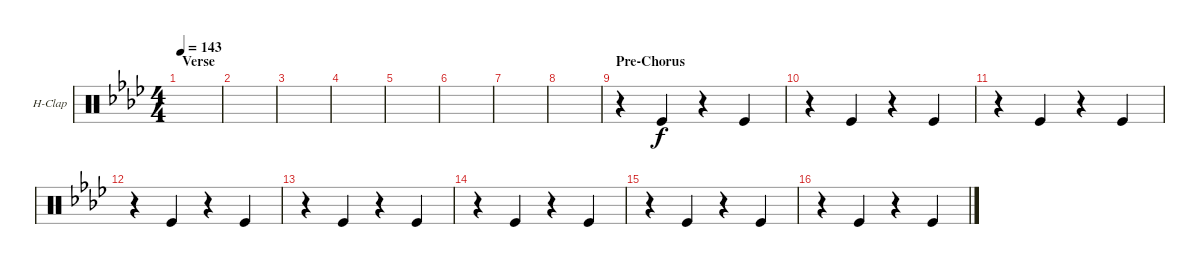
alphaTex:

\defaultSystemsLayout 4
\bracketExtendMode groupsimilarinstruments
\firstSystemTrackNameOrientation horizontal
\otherSystemsTrackNameOrientation horizontal
\track ("Hand Clap" "H-Clap") {instrument percussion}
\staff {score}
\articulation defaults
\ts (4 4)
\section ("" "Verse")
\tempo 143
\clef neutral
\ks fminor
|
|
|
|
|
|
|
|
\section ("" "Pre-Chorus")
r.4 "Kick (hit)".4 r.4 "Kick (hit)".4 |
r.4 "Kick (hit)".4 r.4 "Kick (hit)".4 |
r.4 "Kick (hit)".4 r.4 "Kick (hit)".4 |
r.4 "Kick (hit)".4 r.4 "Kick (hit)".4 |
r.4 "Kick (hit)".4 r.4 "Kick (hit)".4 |
r.4 "Kick (hit)".4 r.4 "Kick (hit)".4 |
r.4 "Kick (hit)".4 r.4 "Kick (hit)".4 |
r.4 "Kick (hit)".4 r.4 "Kick (hit)".4
